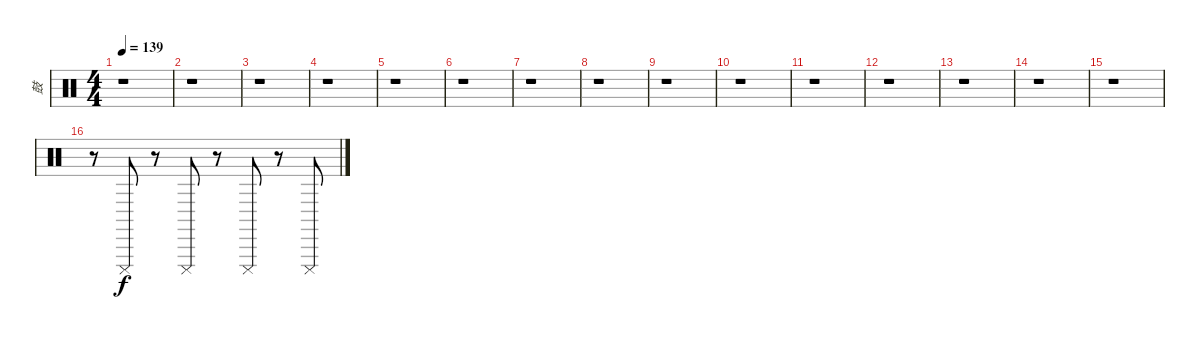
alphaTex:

\track ("鼓" "鼓") {instrument percussion}
\staff {score}
\articulation defaults
\ts (4 4)
\tempo 139
\clef neutral
\ks c
r.1{dy f} |
r.1 |
r.1 |
r.1 |
r.1 |
r.1 |
r.1 |
r.1 |
r.1 |
r.1 |
r.1 |
r.1 |
r.1 |
r.1 |
r.1 |
r.8 "Cuica (mute)".8 r.8 "Cuica (mute)".8 r.8 "Cuica (mute)".8 r.8 "Cuica (mute)".8
